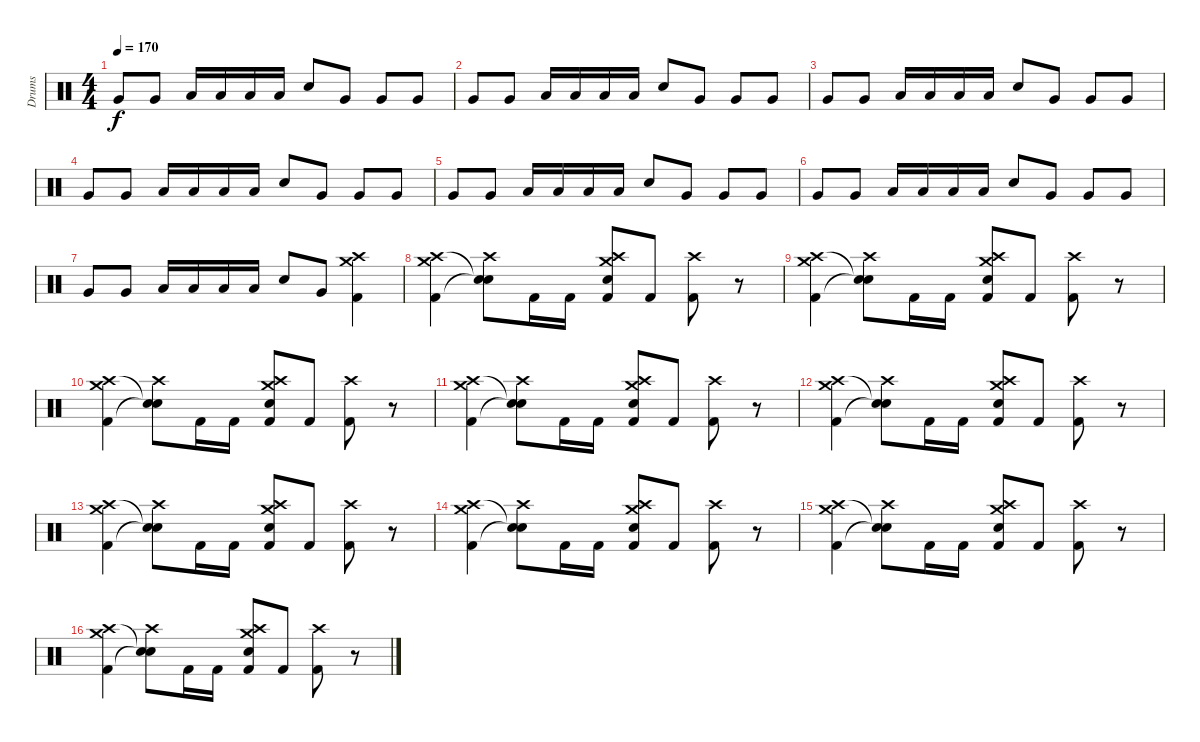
\track ("Drums" "Drums") {instrument percussion}
\staff {score}
\articulation defaults
\ts (4 4)
\tempo 170
\clef neutral
\ks c "Very Low Tom (hit)".8{dy f} "Very Low Tom (hit)".8 "Low Tom (hit)".16 "Low Tom (hit)".16 "Low Tom (hit)".16 "Low Tom (hit)".16 "Snare (hit) 2".8 "Very Low Tom (hit)".8 "Very Low Tom (hit)".8 "Very Low Tom (hit)".8
|
"Very Low Tom (hit)".8 "Very Low Tom (hit)".8 "Low Tom (hit)".16 "Low Tom (hit)".16 "Low Tom (hit)".16 "Low Tom (hit)".16 "Snare (hit) 2".8 "Very Low Tom (hit)".8 "Very Low Tom (hit)".8 "Very Low Tom (hit)".8 |
"Very Low Tom (hit)".8 "Very Low Tom (hit)".8 "Low Tom (hit)".16 "Low Tom (hit)".16 "Low Tom (hit)".16 "Low Tom (hit)".16 "Snare (hit) 2".8 "Very Low Tom (hit)".8 "Very Low Tom (hit)".8 "Very Low Tom (hit)".8 |
"Very Low Tom (hit)".8 "Very Low Tom (hit)".8 "Low Tom (hit)".16 "Low Tom (hit)".16 "Low Tom (hit)".16 "Low Tom (hit)".16 "Snare (hit) 2".8 "Very Low Tom (hit)".8 "Very Low Tom (hit)".8 "Very Low Tom (hit)".8 |
"Very Low Tom (hit)".8 "Very Low Tom (hit)".8 "Low Tom (hit)".16 "Low Tom (hit)".16 "Low Tom (hit)".16 "Low Tom (hit)".16 "Snare (hit) 2".8 "Very Low Tom (hit)".8 "Very Low Tom (hit)".8 "Very Low Tom (hit)".8 |
"Very Low Tom (hit)".8 "Very Low Tom (hit)".8 "Low Tom (hit)".16 "Low Tom (hit)".16 "Low Tom (hit)".16 "Low Tom (hit)".16 "Snare (hit) 2".8 "Very Low Tom (hit)".8 "Very Low Tom (hit)".8 "Very Low Tom (hit)".8 |
"Very Low Tom (hit)".8 "Very Low Tom (hit)".8 "Low Tom (hit)".16 "Low Tom (hit)".16 "Low Tom (hit)".16 "Low Tom (hit)".16 "Snare (hit) 2".8 "Very Low Tom (hit)".8 ("Crash high (hit)" "Crash medium (hit)" "Kick (hit) 2").4 |
("Crash medium (hit)" "Crash high (hit)" "Kick (hit) 2").4 ("Crash high (hit)" "Snare (hit)"{t} "Snare (hit)"{t}).8 "Kick (hit) 2".16 "Kick (hit) 2".16 ("Crash high (hit)" "Snare (hit) 2" "Crash medium (hit)" "Kick (hit) 2").8 "Kick (hit) 2".8 ("Crash high (hit)" "Kick (hit) 2").8 r.8 |
("Crash medium (hit)" "Crash high (hit)" "Kick (hit) 2").4 ("Crash high (hit)" "Snare (hit)"{t} "Snare (hit)"{t}).8 "Kick (hit) 2".16 "Kick (hit) 2".16 ("Crash high (hit)" "Snare (hit) 2" "Crash medium (hit)" "Kick (hit) 2").8 "Kick (hit) 2".8 ("Crash high (hit)" "Kick (hit) 2").8 r.8 |
("Crash medium (hit)" "Crash high (hit)" "Kick (hit) 2").4 ("Crash high (hit)" "Snare (hit)"{t} "Snare (hit)"{t}).8 "Kick (hit) 2".16 "Kick (hit) 2".16 ("Crash high (hit)" "Snare (hit) 2" "Crash medium (hit)" "Kick (hit) 2").8 "Kick (hit) 2".8 ("Crash high (hit)" "Kick (hit) 2").8 r.8 |
("Crash medium (hit)" "Crash high (hit)" "Kick (hit) 2").4 ("Crash high (hit)" "Snare (hit)"{t} "Snare (hit)"{t}).8 "Kick (hit) 2".16 "Kick (hit) 2".16 ("Crash high (hit)" "Snare (hit) 2" "Crash medium (hit)" "Kick (hit) 2").8 "Kick (hit) 2".8 ("Crash high (hit)" "Kick (hit) 2").8 r.8 |
("Crash medium (hit)" "Crash high (hit)" "Kick (hit) 2").4 ("Crash high (hit)" "Snare (hit)"{t} "Snare (hit)"{t}).8 "Kick (hit) 2".16 "Kick (hit) 2".16 ("Crash high (hit)" "Snare (hit) 2" "Crash medium (hit)" "Kick (hit) 2").8 "Kick (hit) 2".8 ("Crash high (hit)" "Kick (hit) 2").8 r.8 |
("Crash medium (hit)" "Crash high (hit)" "Kick (hit) 2").4 ("Crash high (hit)" "Snare (hit)"{t} "Snare (hit)"{t}).8 "Kick (hit) 2".16 "Kick (hit) 2".16 ("Crash high (hit)" "Snare (hit) 2" "Crash medium (hit)" "Kick (hit) 2").8 "Kick (hit) 2".8 ("Crash high (hit)" "Kick (hit) 2").8 r.8 |
("Crash medium (hit)" "Crash high (hit)" "Kick (hit) 2").4 ("Crash high (hit)" "Snare (hit)"{t} "Snare (hit)"{t}).8 "Kick (hit) 2".16 "Kick (hit) 2".16 ("Crash high (hit)" "Snare (hit) 2" "Crash medium (hit)" "Kick (hit) 2").8 "Kick (hit) 2".8 ("Crash high (hit)" "Kick (hit) 2").8 r.8 |
("Crash medium (hit)" "Crash high (hit)" "Kick (hit) 2").4 ("Crash high (hit)" "Snare (hit)"{t} "Snare (hit)"{t}).8 "Kick (hit) 2".16 "Kick (hit) 2".16 ("Crash high (hit)" "Snare (hit) 2" "Crash medium (hit)" "Kick (hit) 2").8 "Kick (hit) 2".8 ("Crash high (hit)" "Kick (hit) 2").8 r.8 |
("Crash medium (hit)" "Crash high (hit)" "Kick (hit) 2").4 ("Crash high (hit)" "Snare (hit)"{t} "Snare (hit)"{t}).8 "Kick (hit) 2".16 "Kick (hit) 2".16 ("Crash high (hit)" "Snare (hit) 2" "Crash medium (hit)" "Kick (hit) 2").8 "Kick (hit) 2".8 ("Crash high (hit)" "Kick (hit) 2").8 r.8
